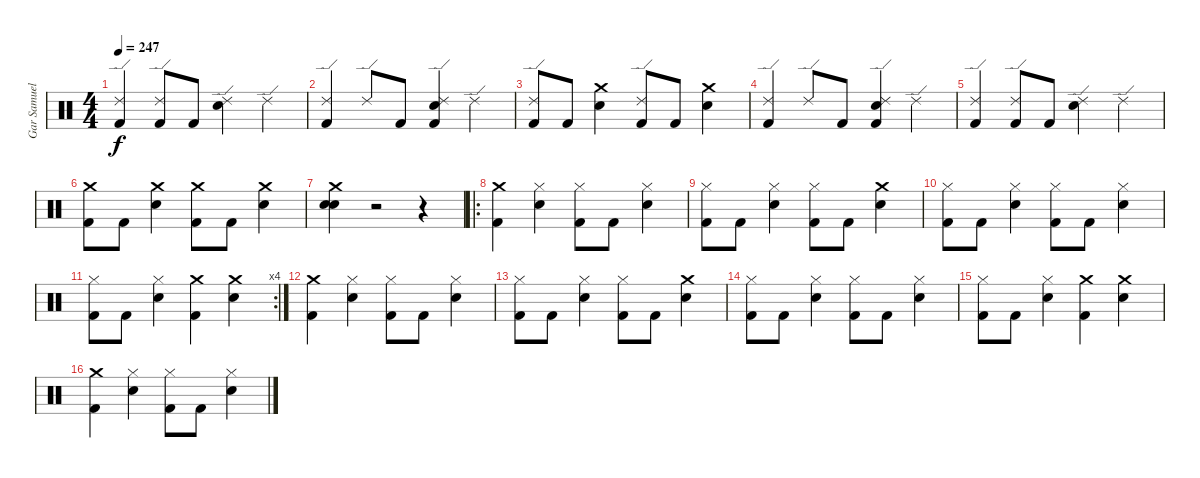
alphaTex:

\track ("Gar Samuelson (Drums)" "Gar Samuel") {instrument percussion}
\staff {score}
\articulation defaults
\ts (4 4)
\tempo 247
\clef neutral
\ks c
("Kick (hit) 2" "Ride (edge) 2").4{dy f} ("Ride (edge) 2" "Kick (hit) 2").8 "Kick (hit) 2".8 ("Snare (hit) 2" "Ride (edge) 2").4 "Ride (edge) 2".4 |
("Kick (hit) 2" "Ride (edge) 2").4 "Ride (edge) 2".8 "Kick (hit) 2".8 ("Ride (edge) 2" "Snare (hit) 2" "Kick (hit) 2").4 "Ride (edge) 2".4 |
("Ride (edge) 2" "Kick (hit) 2").8 "Kick (hit) 2".8 ("Snare (hit) 2" "Crash medium (hit)").4 ("Ride (edge) 2" "Kick (hit) 2").8 "Kick (hit) 2".8 ("Snare (hit) 2" "Crash medium (hit)").4 |
("Ride (edge) 2" "Kick (hit) 2").4 "Ride (edge) 2".8 "Kick (hit) 2".8 ("Ride (edge) 2" "Snare (hit) 2" "Kick (hit) 2").4 "Ride (edge) 2".4 |
("Kick (hit) 2" "Ride (edge) 2").4 ("Ride (edge) 2" "Kick (hit) 2").8 "Kick (hit) 2".8 ("Snare (hit) 2" "Ride (edge) 2").4 "Ride (edge) 2".4 |
("Kick (hit) 2" "Crash medium (hit)").8 "Kick (hit) 2".8 ("Snare (hit) 2" "Crash medium (hit)").4 ("Kick (hit) 2" "Crash medium (hit)").8 "Kick (hit) 2".8 ("Snare (hit) 2" "Crash medium (hit)").4 |
("Electric Snare (hit)" "Crash medium (hit)" "Electric Snare (hit)").4 r.2 r.4 |
\ro
("Kick (hit) 2" "Crash medium (hit)").4 ("Hi-Hat (closed)" "Snare (hit) 2").4 ("Hi-Hat (closed)" "Kick (hit) 2").8 "Kick (hit) 2".8 ("Snare (hit) 2" "Hi-Hat (closed)").4 |
("Hi-Hat (closed)" "Kick (hit) 2").8 "Kick (hit) 2".8 ("Snare (hit) 2" "Hi-Hat (closed)").4 ("Hi-Hat (closed)" "Kick (hit) 2").8 "Kick (hit) 2".8 ("Crash medium (hit)" "Snare (hit) 2").4 |
("Hi-Hat (closed)" "Kick (hit) 2").8 "Kick (hit) 2".8 ("Snare (hit) 2" "Hi-Hat (closed)").4 ("Hi-Hat (closed)" "Kick (hit) 2").8 "Kick (hit) 2".8 ("Snare (hit) 2" "Hi-Hat (closed)").4 |
\rc 4
("Hi-Hat (closed)" "Kick (hit) 2").8 "Kick (hit) 2".8 ("Snare (hit) 2" "Hi-Hat (closed)").4 ("Crash medium (hit)" "Kick (hit) 2").4 ("Crash medium (hit)" "Snare (hit) 2").4 |
("Kick (hit) 2" "Crash medium (hit)").4 ("Hi-Hat (closed)" "Snare (hit) 2").4 ("Hi-Hat (closed)" "Kick (hit) 2").8 "Kick (hit) 2".8 ("Snare (hit) 2" "Hi-Hat (closed)").4 |
("Hi-Hat (closed)" "Kick (hit) 2").8 "Kick (hit) 2".8 ("Snare (hit) 2" "Hi-Hat (closed)").4 ("Hi-Hat (closed)" "Kick (hit) 2").8 "Kick (hit) 2".8 ("Crash medium (hit)" "Snare (hit) 2").4 |
("Hi-Hat (closed)" "Kick (hit) 2").8 "Kick (hit) 2".8 ("Snare (hit) 2" "Hi-Hat (closed)").4 ("Hi-Hat (closed)" "Kick (hit) 2").8 "Kick (hit) 2".8 ("Snare (hit) 2" "Hi-Hat (closed)").4 |
("Hi-Hat (closed)" "Kick (hit) 2").8 "Kick (hit) 2".8 ("Snare (hit) 2" "Hi-Hat (closed)").4 ("Crash medium (hit)" "Kick (hit) 2").4 ("Crash medium (hit)" "Snare (hit) 2").4 |
("Kick (hit) 2" "Crash medium (hit)").4 ("Hi-Hat (closed)" "Snare (hit) 2").4 ("Hi-Hat (closed)" "Kick (hit) 2").8 "Kick (hit) 2".8 ("Snare (hit) 2" "Hi-Hat (closed)").4
